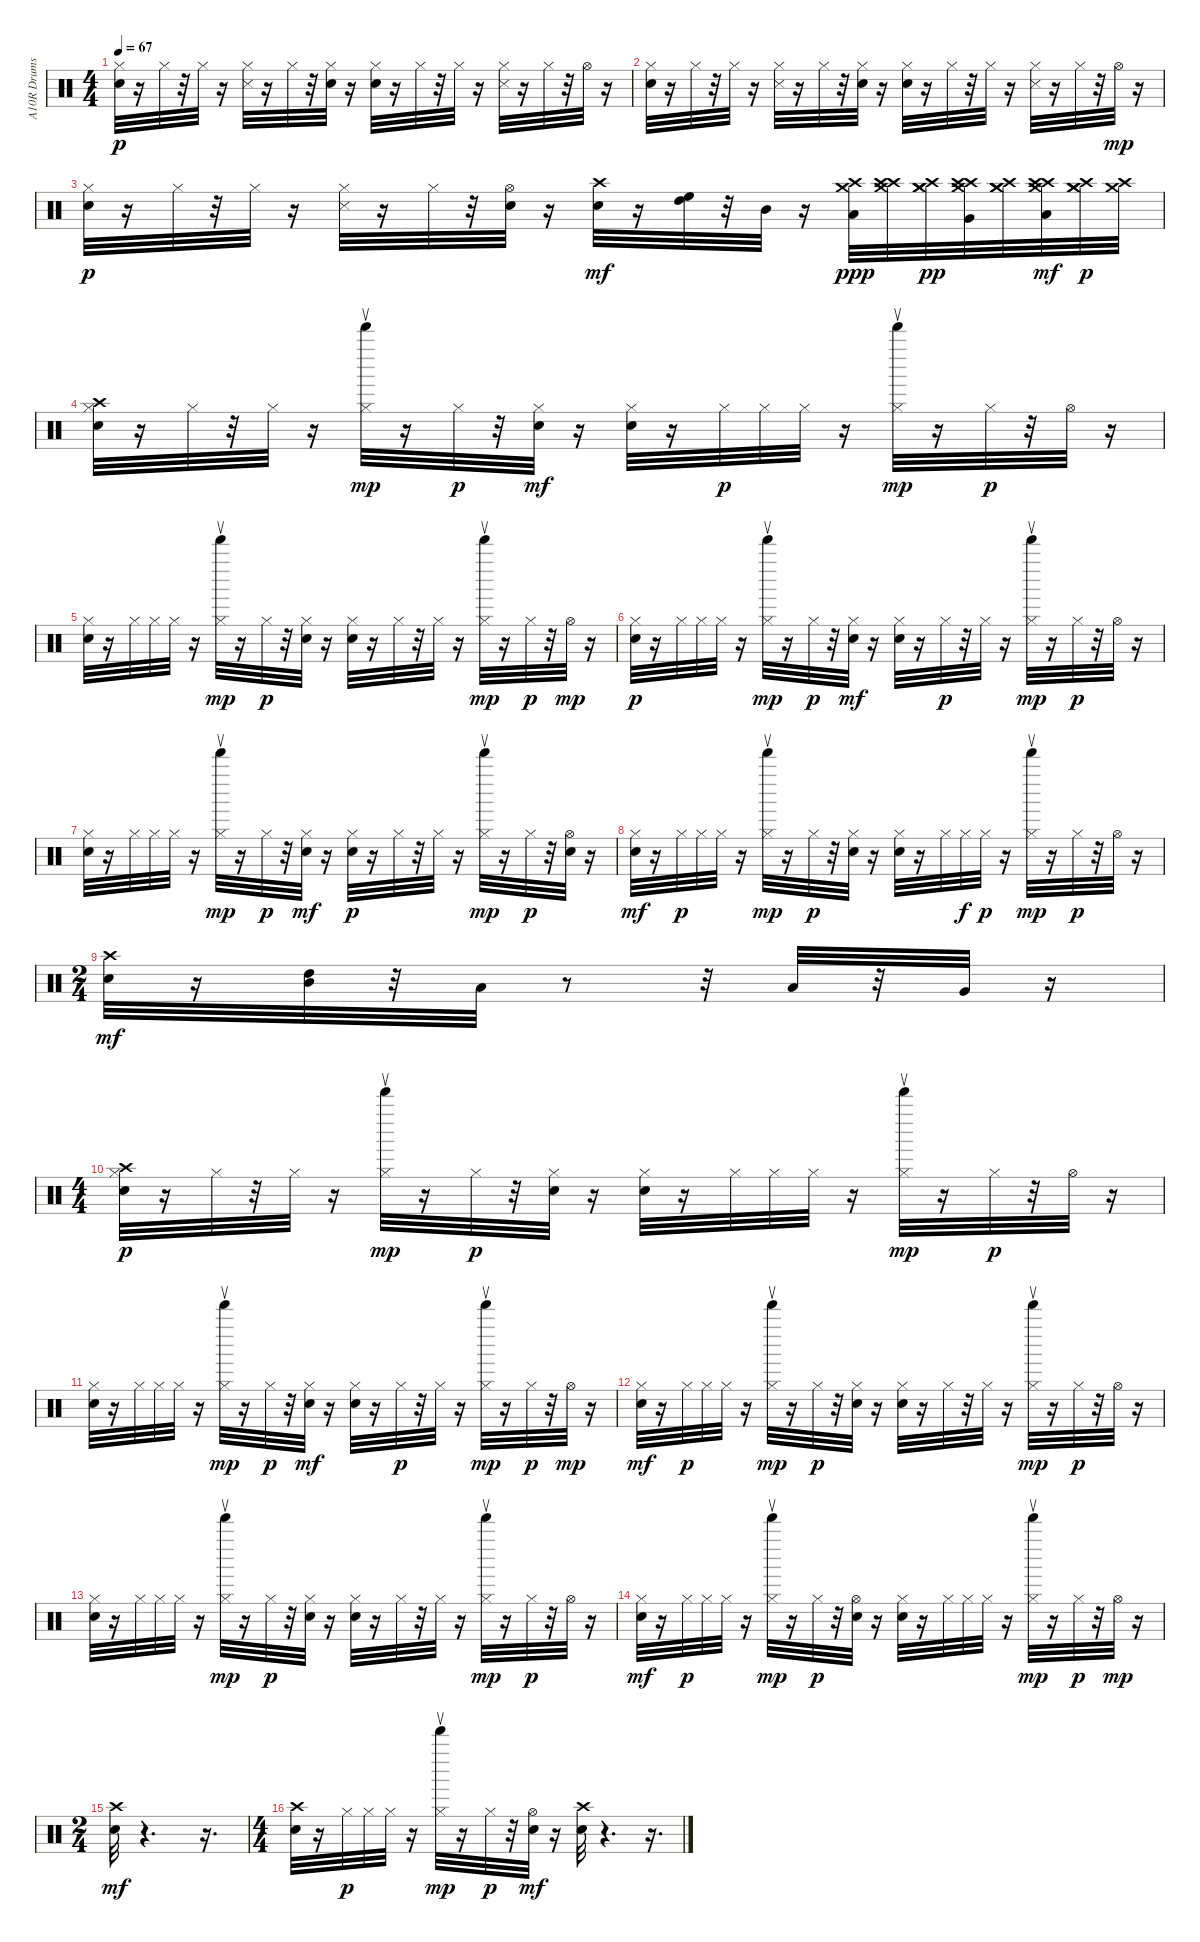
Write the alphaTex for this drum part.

\track ("A10R Drums" "A10R Drums") {instrument percussion}
\staff {score}
\articulation defaults
\ts (4 4)
\tempo 67
\clef neutral
\ks c
("Snare (hit)" "Hi-Hat (closed)").32{dy p} r.16 "Hi-Hat (closed)".32 r.32 "Hi-Hat (closed)".32 r.16 ("Snare (side stick) 3" "Hi-Hat (closed)").32 r.16 "Hi-Hat (closed)".32 r.32 ("Snare (hit)" "Hi-Hat (closed)").32 r.16 ("Snare (hit)" "Hi-Hat (closed)").32 r.16 "Hi-Hat (closed)".32 r.32 "Hi-Hat (closed)".32 r.16 ("Snare (side stick) 3" "Hi-Hat (closed)").32 r.16 "Hi-Hat (closed)".32 r.32 "Hi-Hat (open)".32 r.16 |
("Snare (hit)" "Hi-Hat (closed)").32 r.16 "Hi-Hat (closed)".32 r.32 "Hi-Hat (closed)".32 r.16 ("Snare (side stick) 3" "Hi-Hat (closed)").32 r.16 "Hi-Hat (closed)".32 r.32 ("Snare (hit)" "Hi-Hat (closed)").32 r.16 ("Snare (hit)" "Hi-Hat (closed)").32 r.16 "Hi-Hat (closed)".32 r.32 "Hi-Hat (closed)".32 r.16 ("Snare (side stick) 3" "Hi-Hat (closed)").32 r.16 "Hi-Hat (closed)".32 r.32 "Hi-Hat (open)".32{dy mp} r.16 |
("Snare (hit)" "Hi-Hat (closed)").32{dy p} r.16 "Hi-Hat (closed)".32 r.32 "Hi-Hat (closed)".32 r.16 ("Snare (side stick) 3" "Hi-Hat (closed)").32 r.16 "Hi-Hat (closed)".32 r.32 ("Snare (hit)" "Hi-Hat (open)").32 r.16 ("Crash high (hit)" "Snare (hit)").32{dy mf} r.16 ("High Tom (hit)" "High Floor Tom (hit)").32 r.32 "Mid Tom (hit)".32 r.16 ("Crash high (hit)" "Low Tom (hit)" "Crash medium (hit)").32{dy ppp} ("Crash high (hit)" "Crash medium (hit)" "Crash high (hit)").32 ("Crash medium (hit)" "Crash high (hit)" "Crash medium (hit)").32{dy pp} ("Crash high (hit)" "Very Low Tom (hit)" "Crash medium (hit)" "Crash high (hit)").32 ("Crash medium (hit)" "Crash high (hit)" "Crash medium (hit)").32 ("Crash high (hit)" "Crash medium (hit)" "Crash high (hit)" "Low Floor Tom (hit)").32{dy mf} ("Crash medium (hit)" "Crash high (hit)" "Crash medium (hit)").32{dy p} ("Crash high (hit)" "Crash medium (hit)").32 |
("Crash high (hit)" "Snare (hit)" "Hi-Hat (closed)").32 r.16 "Hi-Hat (closed)".32 r.32 "Hi-Hat (closed)".32 r.16 ("Hi-Hat (closed)" "Bell Tee (return)").32{dy mp} r.16 "Hi-Hat (closed)".32{dy p} r.32 ("Hi-Hat (closed)" "Snare (hit)").32{dy mf} r.16 ("Hi-Hat (closed)" "Snare (hit)").32 r.16 "Hi-Hat (closed)".32{dy p} "Hi-Hat (closed)".32 "Hi-Hat (closed)".32 r.16 ("Hi-Hat (closed)" "Bell Tee (return)").32{dy mp} r.16 "Hi-Hat (closed)".32{dy p} r.32 "Hi-Hat (open)".32 r.16 |
("Snare (hit)" "Hi-Hat (closed)").32 r.16 "Hi-Hat (closed)".32 "Hi-Hat (closed)".32 "Hi-Hat (closed)".32 r.16 ("Hi-Hat (closed)" "Bell Tee (return)").32{dy mp} r.16 "Hi-Hat (closed)".32{dy p} r.32 ("Snare (hit)" "Hi-Hat (closed)").32 r.16 ("Snare (hit)" "Hi-Hat (closed)").32 r.16 "Hi-Hat (closed)".32 r.32 "Hi-Hat (closed)".32 r.16 ("Hi-Hat (closed)" "Bell Tee (return)").32{dy mp} r.16 "Hi-Hat (closed)".32{dy p} r.32 "Hi-Hat (open)".32{dy mp} r.16 |
("Snare (hit)" "Hi-Hat (closed)").32{dy p} r.16 "Hi-Hat (closed)".32 "Hi-Hat (closed)".32 "Hi-Hat (closed)".32 r.16 ("Hi-Hat (closed)" "Bell Tee (return)").32{dy mp} r.16 "Hi-Hat (closed)".32{dy p} r.32 ("Hi-Hat (closed)" "Snare (hit)").32{dy mf} r.16 ("Hi-Hat (closed)" "Snare (hit)").32 r.16 "Hi-Hat (closed)".32{dy p} r.32 "Hi-Hat (closed)".32 r.16 ("Hi-Hat (closed)" "Bell Tee (return)").32{dy mp} r.16 "Hi-Hat (closed)".32{dy p} r.32 "Hi-Hat (open)".32 r.16 |
("Hi-Hat (closed)" "Snare (hit)").32 r.16 "Hi-Hat (closed)".32 "Hi-Hat (closed)".32 "Hi-Hat (closed)".32 r.16 ("Hi-Hat (closed)" "Bell Tee (return)").32{dy mp} r.16 "Hi-Hat (closed)".32{dy p} r.32 ("Hi-Hat (closed)" "Snare (hit)").32{dy mf} r.16 ("Hi-Hat (closed)" "Snare (hit)").32{dy p} r.16 "Hi-Hat (closed)".32 r.32 "Hi-Hat (closed)".32 r.16 ("Hi-Hat (closed)" "Bell Tee (return)").32{dy mp} r.16 "Hi-Hat (closed)".32{dy p} r.32 ("Snare (hit)" "Hi-Hat (open)").32 r.16 |
("Hi-Hat (closed)" "Snare (hit)").32{dy mf} r.16 "Hi-Hat (closed)".32{dy p} "Hi-Hat (closed)".32 "Hi-Hat (closed)".32 r.16 ("Hi-Hat (closed)" "Bell Tee (return)").32{dy mp} r.16 "Hi-Hat (closed)".32{dy p} r.32 ("Hi-Hat (closed)" "Snare (hit)").32 r.16 ("Hi-Hat (closed)" "Snare (hit)").32 r.16 "Hi-Hat (closed)".32 "Hi-Hat (closed)".32{dy f} "Hi-Hat (closed)".32{dy p} r.16 ("Hi-Hat (closed)" "Bell Tee (return)").32{dy mp} r.16 "Hi-Hat (closed)".32{dy p} r.32 "Hi-Hat (open)".32 r.16 |
\ts (2 4)
("Crash high (hit)" "Snare (hit)").32{dy mf} r.16 ("Mid Tom (hit)" "High Tom (hit)").32 r.32 "Low Tom (hit)".32 r.8 r.32 "Low Tom (hit)".32 r.32 "Very Low Tom (hit)".32 r.16 |
\ts (4 4)
("Crash high (hit)" "Snare (hit)" "Hi-Hat (closed)").32{dy p} r.16 "Hi-Hat (closed)".32 r.32 "Hi-Hat (closed)".32 r.16 ("Hi-Hat (closed)" "Bell Tee (return)").32{dy mp} r.16 "Hi-Hat (closed)".32{dy p} r.32 ("Snare (hit)" "Hi-Hat (closed)").32 r.16 ("Snare (hit)" "Hi-Hat (closed)").32 r.16 "Hi-Hat (closed)".32 "Hi-Hat (closed)".32 "Hi-Hat (closed)".32 r.16 ("Hi-Hat (closed)" "Bell Tee (return)").32{dy mp} r.16 "Hi-Hat (closed)".32{dy p} r.32 "Hi-Hat (open)".32 r.16 |
("Snare (hit)" "Hi-Hat (closed)").32 r.16 "Hi-Hat (closed)".32 "Hi-Hat (closed)".32 "Hi-Hat (closed)".32 r.16 ("Hi-Hat (closed)" "Bell Tee (return)").32{dy mp} r.16 "Hi-Hat (closed)".32{dy p} r.32 ("Hi-Hat (closed)" "Snare (hit)").32{dy mf} r.16 ("Hi-Hat (closed)" "Snare (hit)").32 r.16 "Hi-Hat (closed)".32{dy p} r.32 "Hi-Hat (closed)".32 r.16 ("Hi-Hat (closed)" "Bell Tee (return)").32{dy mp} r.16 "Hi-Hat (closed)".32{dy p} r.32 "Hi-Hat (open)".32{dy mp} r.16 |
("Hi-Hat (closed)" "Snare (hit)").32{dy mf} r.16 "Hi-Hat (closed)".32{dy p} "Hi-Hat (closed)".32 "Hi-Hat (closed)".32 r.16 ("Hi-Hat (closed)" "Bell Tee (return)").32{dy mp} r.16 "Hi-Hat (closed)".32{dy p} r.32 ("Snare (hit)" "Hi-Hat (closed)").32 r.16 ("Snare (hit)" "Hi-Hat (closed)").32 r.16 "Hi-Hat (closed)".32 r.32 "Hi-Hat (closed)".32 r.16 ("Hi-Hat (closed)" "Bell Tee (return)").32{dy mp} r.16 "Hi-Hat (closed)".32{dy p} r.32 "Hi-Hat (open)".32 r.16 |
("Snare (hit)" "Hi-Hat (closed)").32 r.16 "Hi-Hat (closed)".32 "Hi-Hat (closed)".32 "Hi-Hat (closed)".32 r.16 ("Hi-Hat (closed)" "Bell Tee (return)").32{dy mp} r.16 "Hi-Hat (closed)".32{dy p} r.32 ("Snare (hit)" "Hi-Hat (closed)").32 r.16 ("Snare (hit)" "Hi-Hat (closed)").32 r.16 "Hi-Hat (closed)".32 r.32 "Hi-Hat (closed)".32 r.16 ("Hi-Hat (closed)" "Bell Tee (return)").32{dy mp} r.16 "Hi-Hat (closed)".32{dy p} r.32 "Hi-Hat (open)".32 r.16 |
("Hi-Hat (closed)" "Snare (hit)").32{dy mf} r.16 "Hi-Hat (closed)".32{dy p} "Hi-Hat (closed)".32 "Hi-Hat (closed)".32 r.16 ("Hi-Hat (closed)" "Bell Tee (return)").32{dy mp} r.16 "Hi-Hat (closed)".32{dy p} r.32 ("Snare (hit)" "Hi-Hat (open)").32 r.16 ("Snare (hit)" "Hi-Hat (closed)").32 r.16 "Hi-Hat (closed)".32 "Hi-Hat (closed)".32 "Hi-Hat (closed)".32 r.16 ("Hi-Hat (closed)" "Bell Tee (return)").32{dy mp} r.16 "Hi-Hat (closed)".32{dy p} r.32 "Hi-Hat (open)".32{dy mp} r.16 |
\ts (2 4)
("Crash high (hit)" "Snare (hit)").32{dy mf} r.4{d} r.16{d} |
\ts (4 4)
("Crash high (hit)" "Snare (hit)").32 r.16 "Hi-Hat (closed)".32{dy p} "Hi-Hat (closed)".32 "Hi-Hat (closed)".32 r.16 ("Hi-Hat (closed)" "Bell Tee (return)").32{dy mp} r.16 "Hi-Hat (closed)".32{dy p} r.32 ("Hi-Hat (open)" "Snare (hit)").32{dy mf} r.16 ("Snare (hit)" "Crash high (hit)").32 r.4{d} r.16{d}
